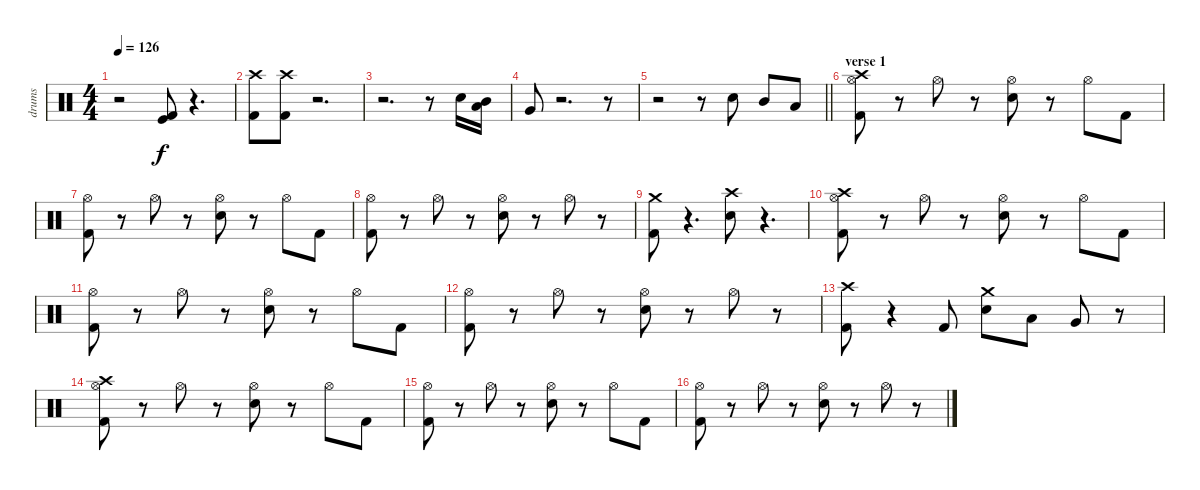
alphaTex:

\track ("drums" "drums") {instrument percussion}
\staff {score}
\articulation defaults
\ts (4 4)
\tempo 126
\clef neutral
\ks c
r.2{dy f} ("Kick (hit)" "Kick (hit) 2").8 r.4{d} |
("Kick (hit) 2" "Crash high (hit)").8 ("Kick (hit) 2" "Crash high (hit)").8 r.2{d} |
r.2{d} r.8 "Electric Snare (hit)".16 ("Mid Tom (hit)" "Low Tom (hit)").16 |
"Very Low Tom (hit)".8 r.2{d} r.8 |
\barLineRight lightlight
r.2 r.8 "Electric Snare (hit)".8 "Mid Tom (hit)".8 "Low Tom (hit)".8 |
\section ("" "verse 1")
("Kick (hit) 2" "Hi-Hat (open)" "Crash high (hit)").8 r.8 "Hi-Hat (open)".8 r.8 ("Electric Snare (hit)" "Hi-Hat (open)").8 r.8 "Hi-Hat (open)".8 "Kick (hit) 2".8 |
("Kick (hit) 2" "Hi-Hat (open)").8 r.8 "Hi-Hat (open)".8 r.8 ("Electric Snare (hit)" "Hi-Hat (open)").8 r.8 "Hi-Hat (open)".8 "Kick (hit) 2".8 |
("Kick (hit) 2" "Hi-Hat (open)").8 r.8 "Hi-Hat (open)".8 r.8 ("Electric Snare (hit)" "Hi-Hat (open)").8 r.8 "Hi-Hat (open)".8 r.8 |
("Kick (hit) 2" "Crash medium (hit)").8 r.4{d} ("Electric Snare (hit)" "Crash high (hit)").8 r.4{d} |
("Kick (hit) 2" "Hi-Hat (open)" "Crash high (hit)").8 r.8 "Hi-Hat (open)".8 r.8 ("Electric Snare (hit)" "Hi-Hat (open)").8 r.8 "Hi-Hat (open)".8 "Kick (hit) 2".8 |
("Kick (hit) 2" "Hi-Hat (open)").8 r.8 "Hi-Hat (open)".8 r.8 ("Electric Snare (hit)" "Hi-Hat (open)").8 r.8 "Hi-Hat (open)".8 "Kick (hit) 2".8 |
("Kick (hit) 2" "Hi-Hat (open)").8 r.8 "Hi-Hat (open)".8 r.8 ("Electric Snare (hit)" "Hi-Hat (open)").8 r.8 "Hi-Hat (open)".8 r.8 |
("Kick (hit) 2" "Crash high (hit)").8 r.4 "Kick (hit) 2".8 ("Electric Snare (hit)" "Crash medium (hit)").8 "Low Tom (hit)".8 "Very Low Tom (hit)".8 r.8 |
("Kick (hit) 2" "Hi-Hat (open)" "Crash high (hit)").8 r.8 "Hi-Hat (open)".8 r.8 ("Electric Snare (hit)" "Hi-Hat (open)").8 r.8 "Hi-Hat (open)".8 "Kick (hit) 2".8 |
("Kick (hit) 2" "Hi-Hat (open)").8 r.8 "Hi-Hat (open)".8 r.8 ("Electric Snare (hit)" "Hi-Hat (open)").8 r.8 "Hi-Hat (open)".8 "Kick (hit) 2".8 |
("Kick (hit) 2" "Hi-Hat (open)").8 r.8 "Hi-Hat (open)".8 r.8 ("Electric Snare (hit)" "Hi-Hat (open)").8 r.8 "Hi-Hat (open)".8 r.8
